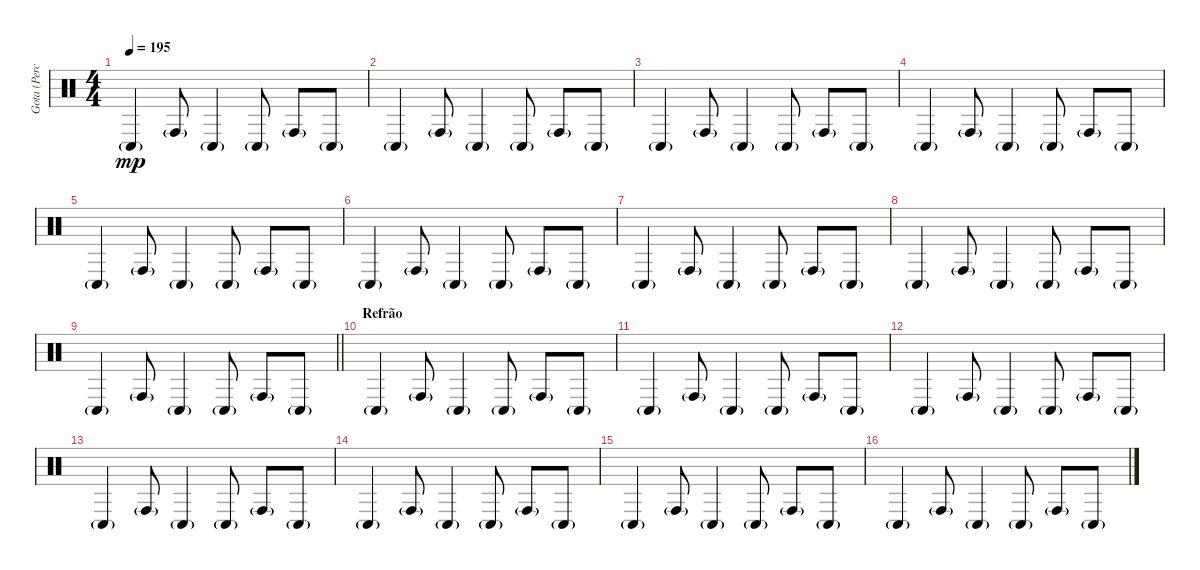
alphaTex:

\track ("Gota (Percussion)" "Gota (Perc") {instrument percussion}
\staff {score}
\articulation defaults
\ts (4 4)
\tempo 195
\clef neutral
\ks c "Conga low (hit)"{g}.4{dy mp} "Conga high (hit)"{g}.8 "Conga low (hit)"{g}.4 "Conga low (hit)"{g}.8 "Conga high (hit)"{g}.8 "Conga low (hit)"{g}.8
|
"Conga low (hit)"{g}.4 "Conga high (hit)"{g}.8 "Conga low (hit)"{g}.4 "Conga low (hit)"{g}.8 "Conga high (hit)"{g}.8 "Conga low (hit)"{g}.8 |
"Conga low (hit)"{g}.4 "Conga high (hit)"{g}.8 "Conga low (hit)"{g}.4 "Conga low (hit)"{g}.8 "Conga high (hit)"{g}.8 "Conga low (hit)"{g}.8 |
"Conga low (hit)"{g}.4 "Conga high (hit)"{g}.8 "Conga low (hit)"{g}.4 "Conga low (hit)"{g}.8 "Conga high (hit)"{g}.8 "Conga low (hit)"{g}.8 |
"Conga low (hit)"{g}.4 "Conga high (hit)"{g}.8 "Conga low (hit)"{g}.4 "Conga low (hit)"{g}.8 "Conga high (hit)"{g}.8 "Conga low (hit)"{g}.8 |
"Conga low (hit)"{g}.4 "Conga high (hit)"{g}.8 "Conga low (hit)"{g}.4 "Conga low (hit)"{g}.8 "Conga high (hit)"{g}.8 "Conga low (hit)"{g}.8 |
"Conga low (hit)"{g}.4 "Conga high (hit)"{g}.8 "Conga low (hit)"{g}.4 "Conga low (hit)"{g}.8 "Conga high (hit)"{g}.8 "Conga low (hit)"{g}.8 |
"Conga low (hit)"{g}.4 "Conga high (hit)"{g}.8 "Conga low (hit)"{g}.4 "Conga low (hit)"{g}.8 "Conga high (hit)"{g}.8 "Conga low (hit)"{g}.8 |
\barLineRight lightlight "Conga low (hit)"{g}.4 "Conga high (hit)"{g}.8 "Conga low (hit)"{g}.4 "Conga low (hit)"{g}.8 "Conga high (hit)"{g}.8 "Conga low (hit)"{g}.8
|
\section ("" "Refrão")
"Conga low (hit)"{g}.4 "Conga high (hit)"{g}.8 "Conga low (hit)"{g}.4 "Conga low (hit)"{g}.8 "Conga high (hit)"{g}.8 "Conga low (hit)"{g}.8 |
"Conga low (hit)"{g}.4 "Conga high (hit)"{g}.8 "Conga low (hit)"{g}.4 "Conga low (hit)"{g}.8 "Conga high (hit)"{g}.8 "Conga low (hit)"{g}.8 |
"Conga low (hit)"{g}.4 "Conga high (hit)"{g}.8 "Conga low (hit)"{g}.4 "Conga low (hit)"{g}.8 "Conga high (hit)"{g}.8 "Conga low (hit)"{g}.8 |
"Conga low (hit)"{g}.4 "Conga high (hit)"{g}.8 "Conga low (hit)"{g}.4 "Conga low (hit)"{g}.8 "Conga high (hit)"{g}.8 "Conga low (hit)"{g}.8 |
"Conga low (hit)"{g}.4 "Conga high (hit)"{g}.8 "Conga low (hit)"{g}.4 "Conga low (hit)"{g}.8 "Conga high (hit)"{g}.8 "Conga low (hit)"{g}.8 |
"Conga low (hit)"{g}.4 "Conga high (hit)"{g}.8 "Conga low (hit)"{g}.4 "Conga low (hit)"{g}.8 "Conga high (hit)"{g}.8 "Conga low (hit)"{g}.8 |
"Conga low (hit)"{g}.4 "Conga high (hit)"{g}.8 "Conga low (hit)"{g}.4 "Conga low (hit)"{g}.8 "Conga high (hit)"{g}.8 "Conga low (hit)"{g}.8
